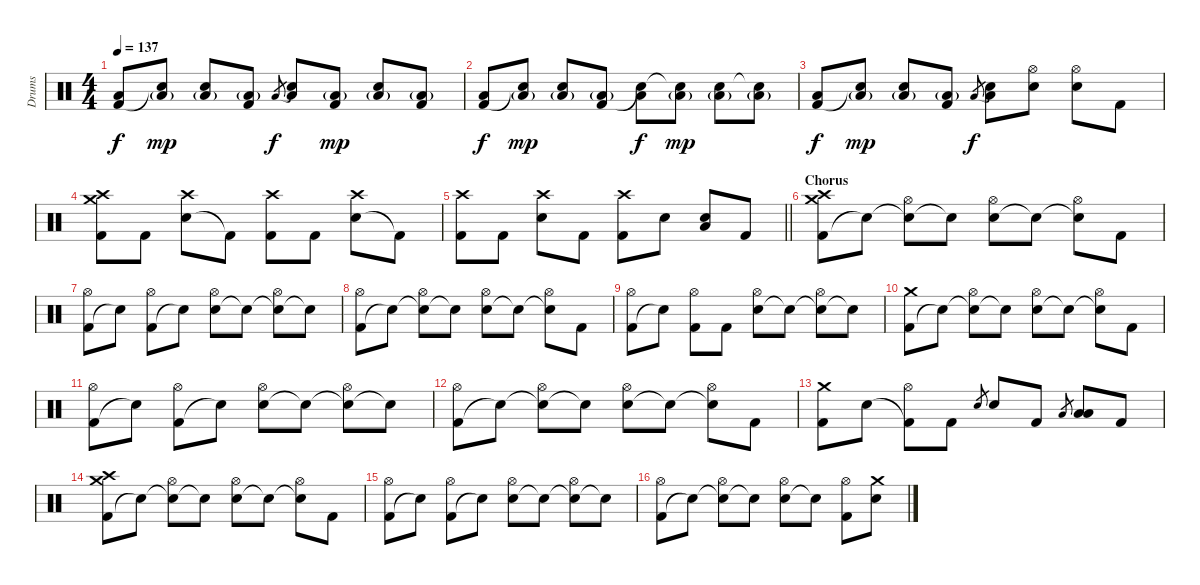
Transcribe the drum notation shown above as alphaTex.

\track ("Drums" "Drums") {instrument percussion}
\staff {score}
\articulation defaults
\ts (4 4)
\tempo 137
\clef neutral
\ks c
("Kick (hit) 2" "Low Floor Tom (hit)").8{dy f} ("Snare (hit)"{t} "Low Floor Tom (hit)"{g}).8{dy mp} ("Electric Snare (hit)" "Low Floor Tom (hit)"{g}).8 ("Kick (hit) 2" "Low Floor Tom (hit)"{g}).8 "Low Floor Tom (hit)".8{gr dy f} ("Snare (hit)"{t} "Low Floor Tom (hit)").8 ("Kick (hit) 2" "Low Floor Tom (hit)"{g}).8{dy mp} ("Electric Snare (hit)" "Low Floor Tom (hit)"{g}).8 ("Kick (hit) 2" "Low Floor Tom (hit)"{g}).8 |
("Kick (hit) 2" "Low Floor Tom (hit)").8{dy f} ("Snare (hit)"{t} "Low Floor Tom (hit)"{g}).8{dy mp} ("Electric Snare (hit)" "Low Floor Tom (hit)"{g}).8 ("Kick (hit) 2" "Low Floor Tom (hit)"{g}).8 ("Snare (hit)"{t} "Low Floor Tom (hit)").8{dy f} ("Snare (hit)"{t} "Low Floor Tom (hit)"{g}).8{dy mp} ("Electric Snare (hit)" "Low Floor Tom (hit)"{g}).8 ("Electric Snare (hit)"{t} "Low Floor Tom (hit)"{g}).8 |
("Kick (hit) 2" "Low Floor Tom (hit)").8{dy f} ("Snare (hit)"{t} "Low Floor Tom (hit)"{g}).8{dy mp} ("Electric Snare (hit)" "Low Floor Tom (hit)"{g}).8 ("Kick (hit) 2" "Low Floor Tom (hit)"{g}).8 "Low Floor Tom (hit)".8{gr dy f} ("Snare (hit)"{t} "Low Floor Tom (hit)").8 ("Electric Snare (hit)" "Hi-Hat (open)").8 ("Electric Snare (hit)" "Hi-Hat (open)").8 "Kick (hit) 2".8 |
("Kick (hit) 2" "Crash medium (hit)" "Crash high (hit)").8 "Kick (hit) 2".8 ("Electric Snare (hit)" "Crash high (hit)").8 "Kick (hit) 2"{t}.8 ("Kick (hit) 2" "Crash high (hit)").8 "Kick (hit) 2".8 ("Electric Snare (hit)" "Crash high (hit)").8 "Kick (hit) 2"{t}.8 |
\barLineRight lightlight
("Kick (hit) 2" "Crash high (hit)").8 "Kick (hit) 2".8 ("Electric Snare (hit)" "Crash high (hit)").8 "Kick (hit) 2".8 ("Kick (hit) 2" "Crash high (hit)").8 "Electric Snare (hit)".8 ("Electric Snare (hit)" "Low Floor Tom (hit)").8 "Kick (hit) 2".8 |
\section ("" "Chorus")
("Kick (hit) 2" "Crash medium (hit)" "Crash high (hit)").8 "Snare (hit)"{t}.8 ("Electric Snare (hit)"{t} "Hi-Hat (open)").8 "Snare (hit)"{t}.8 ("Electric Snare (hit)" "Hi-Hat (open)").8 "Snare (hit)"{t}.8 ("Snare (hit)"{t} "Hi-Hat (open)").8 "Kick (hit) 2".8 |
("Kick (hit) 2" "Hi-Hat (open)").8 "Snare (hit)"{t}.8 ("Kick (hit) 2" "Hi-Hat (open)").8 "Snare (hit)"{t}.8 ("Electric Snare (hit)" "Hi-Hat (open)").8 "Snare (hit)"{t}.8 ("Snare (hit)"{t} "Hi-Hat (open)").8 "Snare (hit)"{t}.8 |
("Kick (hit) 2" "Hi-Hat (open)").8 "Snare (hit)"{t}.8 ("Electric Snare (hit)"{t} "Hi-Hat (open)").8 "Snare (hit)"{t}.8 ("Electric Snare (hit)" "Hi-Hat (open)").8 "Snare (hit)"{t}.8 ("Snare (hit)"{t} "Hi-Hat (open)").8 "Kick (hit) 2".8 |
("Kick (hit) 2" "Hi-Hat (open)").8 "Snare (hit)"{t}.8 ("Kick (hit) 2" "Hi-Hat (open)").8 "Kick (hit) 2".8 ("Electric Snare (hit)" "Hi-Hat (open)").8 "Snare (hit)"{t}.8 ("Snare (hit)"{t} "Hi-Hat (open)").8 "Snare (hit)"{t}.8 |
("Kick (hit) 2" "Crash medium (hit)").8 "Snare (hit)"{t}.8 ("Electric Snare (hit)"{t} "Hi-Hat (open)").8 "Snare (hit)"{t}.8 ("Electric Snare (hit)" "Hi-Hat (open)").8 "Snare (hit)"{t}.8 ("Snare (hit)"{t} "Hi-Hat (open)").8 "Kick (hit) 2".8 |
("Kick (hit) 2" "Hi-Hat (open)").8 "Snare (hit)"{t}.8 ("Kick (hit) 2" "Hi-Hat (open)").8 "Snare (hit)"{t}.8 ("Electric Snare (hit)" "Hi-Hat (open)").8 "Snare (hit)"{t}.8 ("Snare (hit)"{t} "Hi-Hat (open)").8 "Snare (hit)"{t}.8 |
("Kick (hit) 2" "Hi-Hat (open)").8 "Snare (hit)"{t}.8 ("Electric Snare (hit)"{t} "Hi-Hat (open)").8 "Snare (hit)"{t}.8 ("Electric Snare (hit)" "Hi-Hat (open)").8 "Snare (hit)"{t}.8 ("Snare (hit)"{t} "Hi-Hat (open)").8 "Kick (hit) 2".8 |
("Kick (hit) 2" "Crash medium (hit)").8 "Electric Snare (hit)".8 ("Kick (hit) 2"{t} "Hi-Hat (open)").8 "Kick (hit) 2".8 "Electric Snare (hit)".8{gr} "Electric Snare (hit)".8 "Kick (hit) 2".8 "Low Tom (hit)".8{gr} ("Low Tom (hit)" "Low Floor Tom (hit)").8 "Kick (hit) 2".8 |
("Kick (hit) 2" "Crash medium (hit)" "Crash high (hit)").8 "Snare (hit)"{t}.8 ("Electric Snare (hit)"{t} "Hi-Hat (open)").8 "Snare (hit)"{t}.8 ("Electric Snare (hit)" "Hi-Hat (open)").8 "Snare (hit)"{t}.8 ("Snare (hit)"{t} "Hi-Hat (open)").8 "Kick (hit) 2".8 |
("Kick (hit) 2" "Hi-Hat (open)").8 "Snare (hit)"{t}.8 ("Kick (hit) 2" "Hi-Hat (open)").8 "Snare (hit)"{t}.8 ("Electric Snare (hit)" "Hi-Hat (open)").8 "Snare (hit)"{t}.8 ("Snare (hit)"{t} "Hi-Hat (open)").8 "Snare (hit)"{t}.8 |
("Kick (hit) 2" "Hi-Hat (open)").8 "Snare (hit)"{t}.8 ("Electric Snare (hit)"{t} "Hi-Hat (open)").8 "Snare (hit)"{t}.8 ("Electric Snare (hit)" "Hi-Hat (open)").8 "Snare (hit)"{t}.8 ("Kick (hit) 2" "Hi-Hat (open)").8 ("Electric Snare (hit)" "Crash medium (hit)").8
